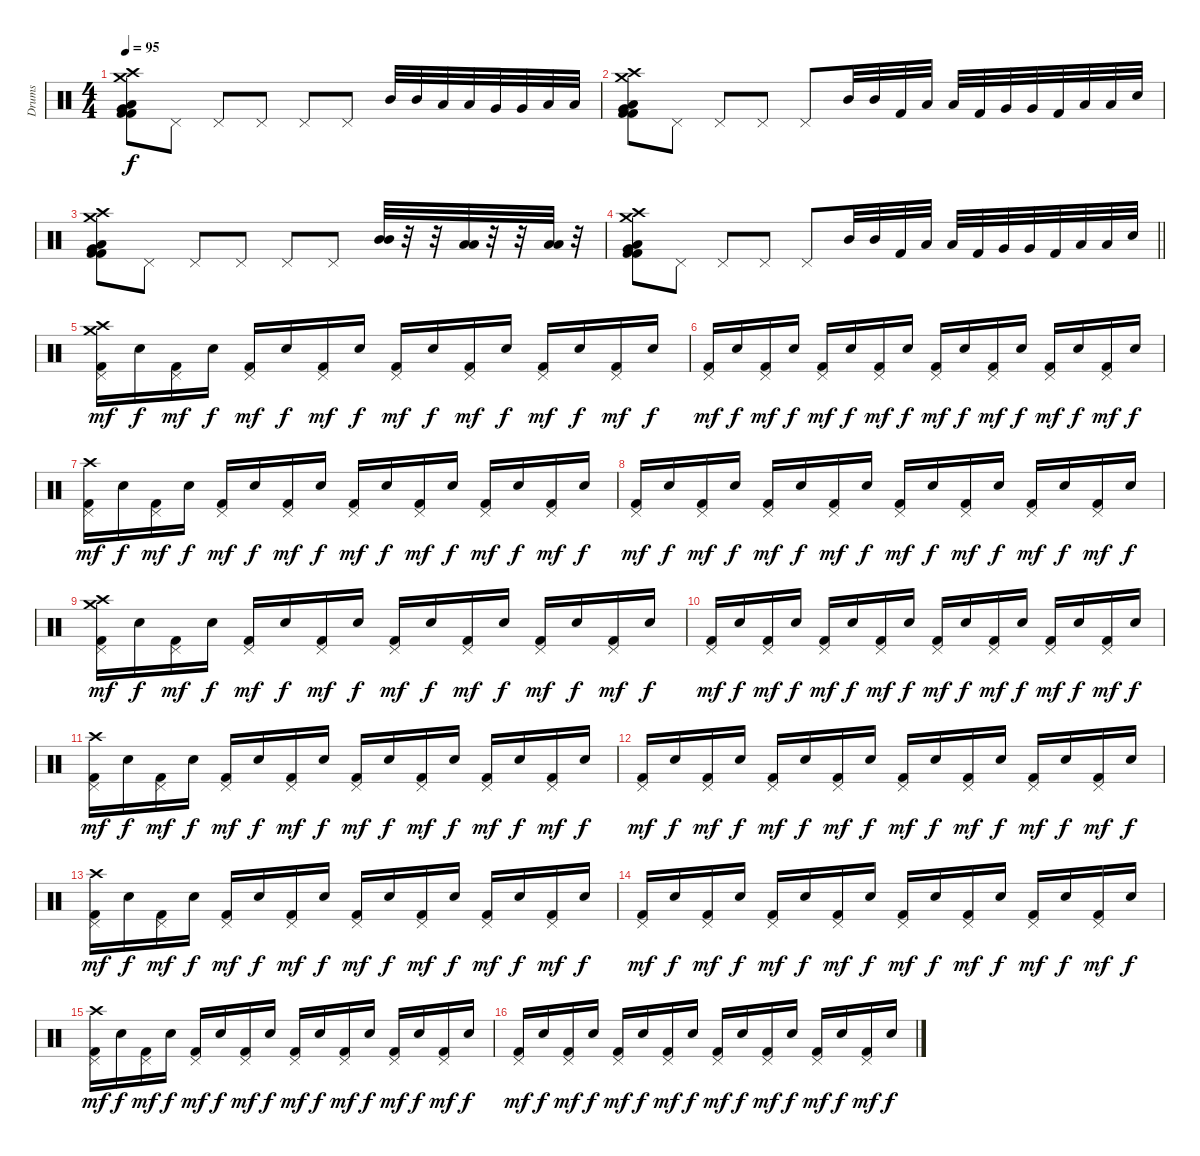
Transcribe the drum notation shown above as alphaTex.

\track ("Drums" "Drums") {instrument percussion}
\staff {score}
\articulation defaults
\ts (4 4)
\tempo 95
\clef neutral
\ks c
("Crash medium (hit)" "Crash high (hit)" "Very Low Tom (hit)" "Low Floor Tom (hit)" "Kick (hit) 2" "Kick (hit) 2").8{dy f} "Pedal Hi-Hat (hit)".8 "Pedal Hi-Hat (hit)".8 "Pedal Hi-Hat (hit)".8 "Pedal Hi-Hat (hit)".8 "Pedal Hi-Hat (hit)".8 "Mid Tom (hit)".32 "Mid Tom (hit)".32 "Low Tom (hit)".32 "Low Tom (hit)".32 "Very Low Tom (hit)".32 "Very Low Tom (hit)".32 "Low Floor Tom (hit)".32 "Low Floor Tom (hit)".32 |
("Crash medium (hit)" "Crash high (hit)" "Very Low Tom (hit)" "Low Floor Tom (hit)" "Kick (hit) 2" "Kick (hit) 2").8 "Pedal Hi-Hat (hit)".8 "Pedal Hi-Hat (hit)".8 "Pedal Hi-Hat (hit)".8 "Pedal Hi-Hat (hit)".8 "Mid Tom (hit)".32 "Mid Tom (hit)".32 "Kick (hit) 2".32 "Low Tom (hit)".32 "Low Tom (hit)".32 "Kick (hit) 2".32 "Very Low Tom (hit)".32 "Very Low Tom (hit)".32 "Kick (hit) 2".32 "Low Floor Tom (hit)".32 "Low Floor Tom (hit)".32 "Snare (hit) 2".32 |
("Crash medium (hit)" "Crash high (hit)" "Very Low Tom (hit)" "Low Floor Tom (hit)" "Kick (hit) 2" "Kick (hit) 2").8 "Pedal Hi-Hat (hit)".8 "Pedal Hi-Hat (hit)".8 "Pedal Hi-Hat (hit)".8 "Pedal Hi-Hat (hit)".8 "Pedal Hi-Hat (hit)".8 ("Mid Tom (hit)" "Mid Tom (hit)").32 r.32 r.32 ("Low Tom (hit)" "Low Tom (hit)").32 r.32 r.32 ("Low Floor Tom (hit)" "Low Floor Tom (hit)").32 r.32 |
\barLineRight lightlight
("Crash medium (hit)" "Crash high (hit)" "Very Low Tom (hit)" "Low Floor Tom (hit)" "Kick (hit) 2" "Kick (hit) 2").8 "Pedal Hi-Hat (hit)".8 "Pedal Hi-Hat (hit)".8 "Pedal Hi-Hat (hit)".8 "Pedal Hi-Hat (hit)".8 "Mid Tom (hit)".32 "Mid Tom (hit)".32 "Kick (hit) 2".32 "Low Tom (hit)".32 "Low Tom (hit)".32 "Kick (hit) 2".32 "Very Low Tom (hit)".32 "Very Low Tom (hit)".32 "Kick (hit) 2".32 "Low Floor Tom (hit)".32 "Low Floor Tom (hit)".32 "Snare (hit) 2".32 |
("Crash high (hit)" "Crash medium (hit)" "Pedal Hi-Hat (hit)" "Kick (hit) 2").16{dy mf} "Snare (hit) 2".16{dy f} ("Pedal Hi-Hat (hit)" "Kick (hit) 2").16{dy mf} "Snare (hit) 2".16{dy f} ("Pedal Hi-Hat (hit)" "Kick (hit) 2").16{dy mf} "Snare (hit) 2".16{dy f} ("Pedal Hi-Hat (hit)" "Kick (hit) 2").16{dy mf} "Snare (hit) 2".16{dy f} ("Pedal Hi-Hat (hit)" "Kick (hit) 2").16{dy mf} "Snare (hit) 2".16{dy f} ("Pedal Hi-Hat (hit)" "Kick (hit) 2").16{dy mf} "Snare (hit) 2".16{dy f} ("Pedal Hi-Hat (hit)" "Kick (hit) 2").16{dy mf} "Snare (hit) 2".16{dy f} ("Pedal Hi-Hat (hit)" "Kick (hit) 2").16{dy mf} "Snare (hit) 2".16{dy f} |
("Pedal Hi-Hat (hit)" "Kick (hit) 2").16{dy mf} "Snare (hit) 2".16{dy f} ("Pedal Hi-Hat (hit)" "Kick (hit) 2").16{dy mf} "Snare (hit) 2".16{dy f} ("Pedal Hi-Hat (hit)" "Kick (hit) 2").16{dy mf} "Snare (hit) 2".16{dy f} ("Pedal Hi-Hat (hit)" "Kick (hit) 2").16{dy mf} "Snare (hit) 2".16{dy f} ("Pedal Hi-Hat (hit)" "Kick (hit) 2").16{dy mf} "Snare (hit) 2".16{dy f} ("Pedal Hi-Hat (hit)" "Kick (hit) 2").16{dy mf} "Snare (hit) 2".16{dy f} ("Pedal Hi-Hat (hit)" "Kick (hit) 2").16{dy mf} "Snare (hit) 2".16{dy f} ("Pedal Hi-Hat (hit)" "Kick (hit) 2").16{dy mf} "Snare (hit) 2".16{dy f} |
("Crash high (hit)" "Pedal Hi-Hat (hit)" "Kick (hit) 2").16{dy mf} "Snare (hit) 2".16{dy f} ("Pedal Hi-Hat (hit)" "Kick (hit) 2").16{dy mf} "Snare (hit) 2".16{dy f} ("Pedal Hi-Hat (hit)" "Kick (hit) 2").16{dy mf} "Snare (hit) 2".16{dy f} ("Pedal Hi-Hat (hit)" "Kick (hit) 2").16{dy mf} "Snare (hit) 2".16{dy f} ("Pedal Hi-Hat (hit)" "Kick (hit) 2").16{dy mf} "Snare (hit) 2".16{dy f} ("Pedal Hi-Hat (hit)" "Kick (hit) 2").16{dy mf} "Snare (hit) 2".16{dy f} ("Pedal Hi-Hat (hit)" "Kick (hit) 2").16{dy mf} "Snare (hit) 2".16{dy f} ("Pedal Hi-Hat (hit)" "Kick (hit) 2").16{dy mf} "Snare (hit) 2".16{dy f} |
("Pedal Hi-Hat (hit)" "Kick (hit) 2").16{dy mf} "Snare (hit) 2".16{dy f} ("Pedal Hi-Hat (hit)" "Kick (hit) 2").16{dy mf} "Snare (hit) 2".16{dy f} ("Pedal Hi-Hat (hit)" "Kick (hit) 2").16{dy mf} "Snare (hit) 2".16{dy f} ("Pedal Hi-Hat (hit)" "Kick (hit) 2").16{dy mf} "Snare (hit) 2".16{dy f} ("Pedal Hi-Hat (hit)" "Kick (hit) 2").16{dy mf} "Snare (hit) 2".16{dy f} ("Pedal Hi-Hat (hit)" "Kick (hit) 2").16{dy mf} "Snare (hit) 2".16{dy f} ("Pedal Hi-Hat (hit)" "Kick (hit) 2").16{dy mf} "Snare (hit) 2".16{dy f} ("Pedal Hi-Hat (hit)" "Kick (hit) 2").16{dy mf} "Snare (hit) 2".16{dy f} |
("Crash high (hit)" "Crash medium (hit)" "Pedal Hi-Hat (hit)" "Kick (hit) 2").16{dy mf} "Snare (hit) 2".16{dy f} ("Pedal Hi-Hat (hit)" "Kick (hit) 2").16{dy mf} "Snare (hit) 2".16{dy f} ("Pedal Hi-Hat (hit)" "Kick (hit) 2").16{dy mf} "Snare (hit) 2".16{dy f} ("Pedal Hi-Hat (hit)" "Kick (hit) 2").16{dy mf} "Snare (hit) 2".16{dy f} ("Pedal Hi-Hat (hit)" "Kick (hit) 2").16{dy mf} "Snare (hit) 2".16{dy f} ("Pedal Hi-Hat (hit)" "Kick (hit) 2").16{dy mf} "Snare (hit) 2".16{dy f} ("Pedal Hi-Hat (hit)" "Kick (hit) 2").16{dy mf} "Snare (hit) 2".16{dy f} ("Pedal Hi-Hat (hit)" "Kick (hit) 2").16{dy mf} "Snare (hit) 2".16{dy f} |
("Pedal Hi-Hat (hit)" "Kick (hit) 2").16{dy mf} "Snare (hit) 2".16{dy f} ("Pedal Hi-Hat (hit)" "Kick (hit) 2").16{dy mf} "Snare (hit) 2".16{dy f} ("Pedal Hi-Hat (hit)" "Kick (hit) 2").16{dy mf} "Snare (hit) 2".16{dy f} ("Pedal Hi-Hat (hit)" "Kick (hit) 2").16{dy mf} "Snare (hit) 2".16{dy f} ("Pedal Hi-Hat (hit)" "Kick (hit) 2").16{dy mf} "Snare (hit) 2".16{dy f} ("Pedal Hi-Hat (hit)" "Kick (hit) 2").16{dy mf} "Snare (hit) 2".16{dy f} ("Pedal Hi-Hat (hit)" "Kick (hit) 2").16{dy mf} "Snare (hit) 2".16{dy f} ("Pedal Hi-Hat (hit)" "Kick (hit) 2").16{dy mf} "Snare (hit) 2".16{dy f} |
("Crash high (hit)" "Pedal Hi-Hat (hit)" "Kick (hit) 2").16{dy mf} "Snare (hit) 2".16{dy f} ("Pedal Hi-Hat (hit)" "Kick (hit) 2").16{dy mf} "Snare (hit) 2".16{dy f} ("Pedal Hi-Hat (hit)" "Kick (hit) 2").16{dy mf} "Snare (hit) 2".16{dy f} ("Pedal Hi-Hat (hit)" "Kick (hit) 2").16{dy mf} "Snare (hit) 2".16{dy f} ("Pedal Hi-Hat (hit)" "Kick (hit) 2").16{dy mf} "Snare (hit) 2".16{dy f} ("Pedal Hi-Hat (hit)" "Kick (hit) 2").16{dy mf} "Snare (hit) 2".16{dy f} ("Pedal Hi-Hat (hit)" "Kick (hit) 2").16{dy mf} "Snare (hit) 2".16{dy f} ("Pedal Hi-Hat (hit)" "Kick (hit) 2").16{dy mf} "Snare (hit) 2".16{dy f} |
("Pedal Hi-Hat (hit)" "Kick (hit) 2").16{dy mf} "Snare (hit) 2".16{dy f} ("Pedal Hi-Hat (hit)" "Kick (hit) 2").16{dy mf} "Snare (hit) 2".16{dy f} ("Pedal Hi-Hat (hit)" "Kick (hit) 2").16{dy mf} "Snare (hit) 2".16{dy f} ("Pedal Hi-Hat (hit)" "Kick (hit) 2").16{dy mf} "Snare (hit) 2".16{dy f} ("Pedal Hi-Hat (hit)" "Kick (hit) 2").16{dy mf} "Snare (hit) 2".16{dy f} ("Pedal Hi-Hat (hit)" "Kick (hit) 2").16{dy mf} "Snare (hit) 2".16{dy f} ("Pedal Hi-Hat (hit)" "Kick (hit) 2").16{dy mf} "Snare (hit) 2".16{dy f} ("Pedal Hi-Hat (hit)" "Kick (hit) 2").16{dy mf} "Snare (hit) 2".16{dy f} |
("Crash high (hit)" "Pedal Hi-Hat (hit)" "Kick (hit) 2").16{dy mf} "Snare (hit) 2".16{dy f} ("Pedal Hi-Hat (hit)" "Kick (hit) 2").16{dy mf} "Snare (hit) 2".16{dy f} ("Pedal Hi-Hat (hit)" "Kick (hit) 2").16{dy mf} "Snare (hit) 2".16{dy f} ("Pedal Hi-Hat (hit)" "Kick (hit) 2").16{dy mf} "Snare (hit) 2".16{dy f} ("Pedal Hi-Hat (hit)" "Kick (hit) 2").16{dy mf} "Snare (hit) 2".16{dy f} ("Pedal Hi-Hat (hit)" "Kick (hit) 2").16{dy mf} "Snare (hit) 2".16{dy f} ("Pedal Hi-Hat (hit)" "Kick (hit) 2").16{dy mf} "Snare (hit) 2".16{dy f} ("Pedal Hi-Hat (hit)" "Kick (hit) 2").16{dy mf} "Snare (hit) 2".16{dy f} |
("Pedal Hi-Hat (hit)" "Kick (hit) 2").16{dy mf} "Snare (hit) 2".16{dy f} ("Pedal Hi-Hat (hit)" "Kick (hit) 2").16{dy mf} "Snare (hit) 2".16{dy f} ("Pedal Hi-Hat (hit)" "Kick (hit) 2").16{dy mf} "Snare (hit) 2".16{dy f} ("Pedal Hi-Hat (hit)" "Kick (hit) 2").16{dy mf} "Snare (hit) 2".16{dy f} ("Pedal Hi-Hat (hit)" "Kick (hit) 2").16{dy mf} "Snare (hit) 2".16{dy f} ("Pedal Hi-Hat (hit)" "Kick (hit) 2").16{dy mf} "Snare (hit) 2".16{dy f} ("Pedal Hi-Hat (hit)" "Kick (hit) 2").16{dy mf} "Snare (hit) 2".16{dy f} ("Pedal Hi-Hat (hit)" "Kick (hit) 2").16{dy mf} "Snare (hit) 2".16{dy f} |
("Crash high (hit)" "Pedal Hi-Hat (hit)" "Kick (hit) 2").16{dy mf} "Snare (hit) 2".16{dy f} ("Pedal Hi-Hat (hit)" "Kick (hit) 2").16{dy mf} "Snare (hit) 2".16{dy f} ("Pedal Hi-Hat (hit)" "Kick (hit) 2").16{dy mf} "Snare (hit) 2".16{dy f} ("Pedal Hi-Hat (hit)" "Kick (hit) 2").16{dy mf} "Snare (hit) 2".16{dy f} ("Pedal Hi-Hat (hit)" "Kick (hit) 2").16{dy mf} "Snare (hit) 2".16{dy f} ("Pedal Hi-Hat (hit)" "Kick (hit) 2").16{dy mf} "Snare (hit) 2".16{dy f} ("Pedal Hi-Hat (hit)" "Kick (hit) 2").16{dy mf} "Snare (hit) 2".16{dy f} ("Pedal Hi-Hat (hit)" "Kick (hit) 2").16{dy mf} "Snare (hit) 2".16{dy f} |
("Pedal Hi-Hat (hit)" "Kick (hit) 2").16{dy mf} "Snare (hit) 2".16{dy f} ("Pedal Hi-Hat (hit)" "Kick (hit) 2").16{dy mf} "Snare (hit) 2".16{dy f} ("Pedal Hi-Hat (hit)" "Kick (hit) 2").16{dy mf} "Snare (hit) 2".16{dy f} ("Pedal Hi-Hat (hit)" "Kick (hit) 2").16{dy mf} "Snare (hit) 2".16{dy f} ("Pedal Hi-Hat (hit)" "Kick (hit) 2").16{dy mf} "Snare (hit) 2".16{dy f} ("Pedal Hi-Hat (hit)" "Kick (hit) 2").16{dy mf} "Snare (hit) 2".16{dy f} ("Pedal Hi-Hat (hit)" "Kick (hit) 2").16{dy mf} "Snare (hit) 2".16{dy f} ("Pedal Hi-Hat (hit)" "Kick (hit) 2").16{dy mf} "Snare (hit) 2".16{dy f}
